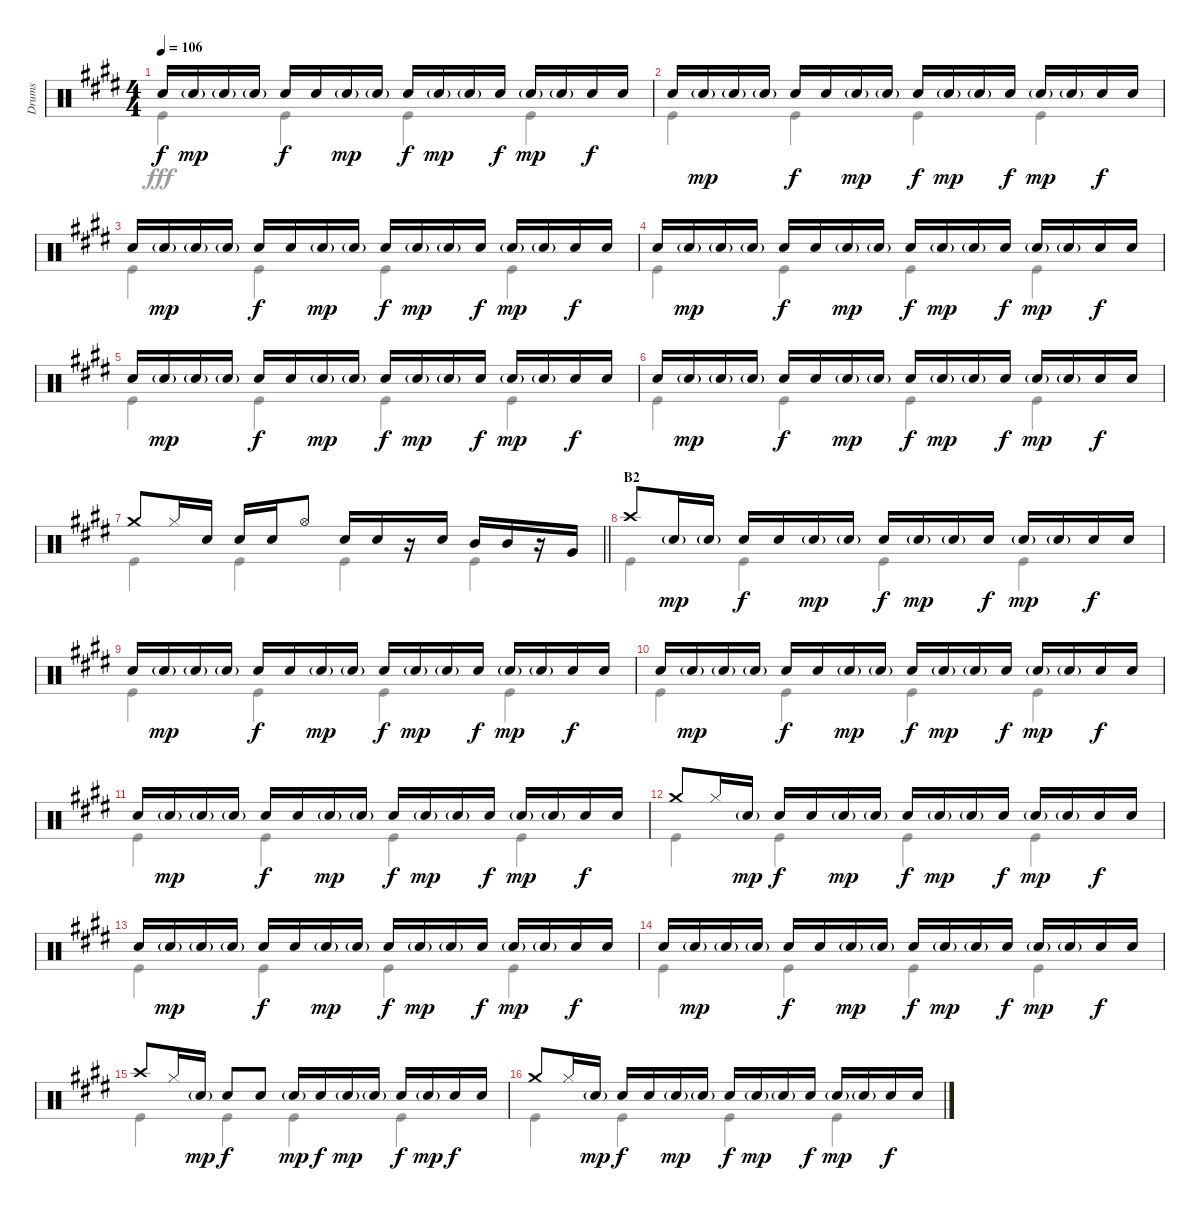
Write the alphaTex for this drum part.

\track ("Drums" "Drums") {instrument percussion}
\staff {score}
\articulation defaults
\voice
\ts (4 4)
\tempo 106
\clef neutral
\ks e "Snare (hit) 2".16{dy f} "Snare (hit) 2"{g}.16{dy mp} "Snare (hit) 2"{g}.16 "Snare (hit) 2"{g}.16 "Snare (hit) 2".16{dy f} "Snare (hit) 2".16 "Snare (hit) 2"{g}.16{dy mp} "Snare (hit) 2"{g}.16 "Snare (hit) 2".16{dy f} "Snare (hit) 2"{g}.16{dy mp} "Snare (hit) 2"{g}.16 "Snare (hit) 2".16{dy f} "Snare (hit) 2"{g}.16{dy mp} "Snare (hit) 2"{g}.16 "Snare (hit) 2".16{dy f} "Snare (hit) 2".16
|
"Snare (hit) 2".16 "Snare (hit) 2"{g}.16{dy mp} "Snare (hit) 2"{g}.16 "Snare (hit) 2"{g}.16 "Snare (hit) 2".16{dy f} "Snare (hit) 2".16 "Snare (hit) 2"{g}.16{dy mp} "Snare (hit) 2"{g}.16 "Snare (hit) 2".16{dy f} "Snare (hit) 2"{g}.16{dy mp} "Snare (hit) 2"{g}.16 "Snare (hit) 2".16{dy f} "Snare (hit) 2"{g}.16{dy mp} "Snare (hit) 2"{g}.16 "Snare (hit) 2".16{dy f} "Snare (hit) 2".16 |
"Snare (hit) 2".16 "Snare (hit) 2"{g}.16{dy mp} "Snare (hit) 2"{g}.16 "Snare (hit) 2"{g}.16 "Snare (hit) 2".16{dy f} "Snare (hit) 2".16 "Snare (hit) 2"{g}.16{dy mp} "Snare (hit) 2"{g}.16 "Snare (hit) 2".16{dy f} "Snare (hit) 2"{g}.16{dy mp} "Snare (hit) 2"{g}.16 "Snare (hit) 2".16{dy f} "Snare (hit) 2"{g}.16{dy mp} "Snare (hit) 2"{g}.16 "Snare (hit) 2".16{dy f} "Snare (hit) 2".16 |
"Snare (hit) 2".16 "Snare (hit) 2"{g}.16{dy mp} "Snare (hit) 2"{g}.16 "Snare (hit) 2"{g}.16 "Snare (hit) 2".16{dy f} "Snare (hit) 2".16 "Snare (hit) 2"{g}.16{dy mp} "Snare (hit) 2"{g}.16 "Snare (hit) 2".16{dy f} "Snare (hit) 2"{g}.16{dy mp} "Snare (hit) 2"{g}.16 "Snare (hit) 2".16{dy f} "Snare (hit) 2"{g}.16{dy mp} "Snare (hit) 2"{g}.16 "Snare (hit) 2".16{dy f} "Snare (hit) 2".16 |
"Snare (hit) 2".16 "Snare (hit) 2"{g}.16{dy mp} "Snare (hit) 2"{g}.16 "Snare (hit) 2"{g}.16 "Snare (hit) 2".16{dy f} "Snare (hit) 2".16 "Snare (hit) 2"{g}.16{dy mp} "Snare (hit) 2"{g}.16 "Snare (hit) 2".16{dy f} "Snare (hit) 2"{g}.16{dy mp} "Snare (hit) 2"{g}.16 "Snare (hit) 2".16{dy f} "Snare (hit) 2"{g}.16{dy mp} "Snare (hit) 2"{g}.16 "Snare (hit) 2".16{dy f} "Snare (hit) 2".16 |
"Snare (hit) 2".16 "Snare (hit) 2"{g}.16{dy mp} "Snare (hit) 2"{g}.16 "Snare (hit) 2"{g}.16 "Snare (hit) 2".16{dy f} "Snare (hit) 2".16 "Snare (hit) 2"{g}.16{dy mp} "Snare (hit) 2"{g}.16 "Snare (hit) 2".16{dy f} "Snare (hit) 2"{g}.16{dy mp} "Snare (hit) 2"{g}.16 "Snare (hit) 2".16{dy f} "Snare (hit) 2"{g}.16{dy mp} "Snare (hit) 2"{g}.16 "Snare (hit) 2".16{dy f} "Snare (hit) 2".16 |
\barLineRight lightlight "Crash medium (hit)".8 "Hi-Hat (closed)".16 "Snare (hit) 2".16 "Snare (hit) 2".16 "Snare (hit) 2".16 "Hi-Hat (open)".8 "Snare (hit) 2".16 "Snare (hit) 2".16
r.16 "Snare (hit) 2".16 "Mid Tom (hit)".16 "Mid Tom (hit)".16 r.16 "Very Low Tom (hit)".16 |
\section ("" "B2")
"Crash high (hit)".8 "Snare (hit) 2"{g}.16{dy mp} "Snare (hit) 2"{g}.16 "Snare (hit) 2".16{dy f} "Snare (hit) 2".16 "Snare (hit) 2"{g}.16{dy mp} "Snare (hit) 2"{g}.16 "Snare (hit) 2".16{dy f} "Snare (hit) 2"{g}.16{dy mp} "Snare (hit) 2"{g}.16 "Snare (hit) 2".16{dy f} "Snare (hit) 2"{g}.16{dy mp} "Snare (hit) 2"{g}.16 "Snare (hit) 2".16{dy f} "Snare (hit) 2".16 |
"Snare (hit) 2".16 "Snare (hit) 2"{g}.16{dy mp} "Snare (hit) 2"{g}.16 "Snare (hit) 2"{g}.16 "Snare (hit) 2".16{dy f} "Snare (hit) 2".16 "Snare (hit) 2"{g}.16{dy mp} "Snare (hit) 2"{g}.16 "Snare (hit) 2".16{dy f} "Snare (hit) 2"{g}.16{dy mp} "Snare (hit) 2"{g}.16 "Snare (hit) 2".16{dy f} "Snare (hit) 2"{g}.16{dy mp} "Snare (hit) 2"{g}.16 "Snare (hit) 2".16{dy f} "Snare (hit) 2".16 |
"Snare (hit) 2".16 "Snare (hit) 2"{g}.16{dy mp} "Snare (hit) 2"{g}.16 "Snare (hit) 2"{g}.16 "Snare (hit) 2".16{dy f} "Snare (hit) 2".16 "Snare (hit) 2"{g}.16{dy mp} "Snare (hit) 2"{g}.16 "Snare (hit) 2".16{dy f} "Snare (hit) 2"{g}.16{dy mp} "Snare (hit) 2"{g}.16 "Snare (hit) 2".16{dy f} "Snare (hit) 2"{g}.16{dy mp} "Snare (hit) 2"{g}.16 "Snare (hit) 2".16{dy f} "Snare (hit) 2".16 |
"Snare (hit) 2".16 "Snare (hit) 2"{g}.16{dy mp} "Snare (hit) 2"{g}.16 "Snare (hit) 2"{g}.16 "Snare (hit) 2".16{dy f} "Snare (hit) 2".16 "Snare (hit) 2"{g}.16{dy mp} "Snare (hit) 2"{g}.16 "Snare (hit) 2".16{dy f} "Snare (hit) 2"{g}.16{dy mp} "Snare (hit) 2"{g}.16 "Snare (hit) 2".16{dy f} "Snare (hit) 2"{g}.16{dy mp} "Snare (hit) 2"{g}.16 "Snare (hit) 2".16{dy f} "Snare (hit) 2".16 |
"Crash medium (hit)".8 "Hi-Hat (closed)".16 "Snare (hit) 2"{g}.16{dy mp} "Snare (hit) 2".16{dy f} "Snare (hit) 2".16 "Snare (hit) 2"{g}.16{dy mp} "Snare (hit) 2"{g}.16 "Snare (hit) 2".16{dy f} "Snare (hit) 2"{g}.16{dy mp} "Snare (hit) 2"{g}.16 "Snare (hit) 2".16{dy f} "Snare (hit) 2"{g}.16{dy mp} "Snare (hit) 2"{g}.16 "Snare (hit) 2".16{dy f} "Snare (hit) 2".16 |
"Snare (hit) 2".16 "Snare (hit) 2"{g}.16{dy mp} "Snare (hit) 2"{g}.16 "Snare (hit) 2"{g}.16 "Snare (hit) 2".16{dy f} "Snare (hit) 2".16 "Snare (hit) 2"{g}.16{dy mp} "Snare (hit) 2"{g}.16 "Snare (hit) 2".16{dy f} "Snare (hit) 2"{g}.16{dy mp} "Snare (hit) 2"{g}.16 "Snare (hit) 2".16{dy f} "Snare (hit) 2"{g}.16{dy mp} "Snare (hit) 2"{g}.16 "Snare (hit) 2".16{dy f} "Snare (hit) 2".16 |
"Snare (hit) 2".16 "Snare (hit) 2"{g}.16{dy mp} "Snare (hit) 2"{g}.16 "Snare (hit) 2"{g}.16 "Snare (hit) 2".16{dy f} "Snare (hit) 2".16 "Snare (hit) 2"{g}.16{dy mp} "Snare (hit) 2"{g}.16 "Snare (hit) 2".16{dy f} "Snare (hit) 2"{g}.16{dy mp} "Snare (hit) 2"{g}.16 "Snare (hit) 2".16{dy f} "Snare (hit) 2"{g}.16{dy mp} "Snare (hit) 2"{g}.16 "Snare (hit) 2".16{dy f} "Snare (hit) 2".16 |
"Crash high (hit)".8 "Hi-Hat (closed)".16 "Snare (hit) 2"{g}.16{dy mp} "Snare (hit) 2".8{dy f} "Snare (hit) 2".8 "Snare (hit) 2"{g}.16{dy mp} "Snare (hit) 2".16{dy f} "Snare (hit) 2"{g}.16{dy mp} "Snare (hit) 2"{g}.16 "Snare (hit) 2".16{dy f} "Snare (hit) 2"{g}.16{dy mp} "Snare (hit) 2".16{dy f} "Snare (hit) 2".16 |
"Crash medium (hit)".8 "Hi-Hat (closed)".16 "Snare (hit) 2"{g}.16{dy mp} "Snare (hit) 2".16{dy f} "Snare (hit) 2".16 "Snare (hit) 2"{g}.16{dy mp} "Snare (hit) 2"{g}.16 "Snare (hit) 2".16{dy f} "Snare (hit) 2"{g}.16{dy mp} "Snare (hit) 2"{g}.16 "Snare (hit) 2".16{dy f} "Snare (hit) 2"{g}.16{dy mp} "Snare (hit) 2"{g}.16 "Snare (hit) 2".16{dy f} "Snare (hit) 2".16
\voice
\clef neutral
\ottava regular
\simile none
\ks e "Kick (hit)".4{dy fff} "Kick (hit)".4 "Kick (hit)".4 "Kick (hit)".4
|
"Kick (hit)".4 "Kick (hit)".4 "Kick (hit)".4 "Kick (hit)".4 |
"Kick (hit)".4 "Kick (hit)".4 "Kick (hit)".4 "Kick (hit)".4 |
"Kick (hit)".4 "Kick (hit)".4 "Kick (hit)".4 "Kick (hit)".4 |
"Kick (hit)".4 "Kick (hit)".4 "Kick (hit)".4 "Kick (hit)".4 |
"Kick (hit)".4 "Kick (hit)".4 "Kick (hit)".4 "Kick (hit)".4 |
\barLineRight lightlight "Kick (hit)".4 "Kick (hit)".4 "Kick (hit)".4 "Kick (hit)".4
|
"Kick (hit)".4 "Kick (hit)".4 "Kick (hit)".4 "Kick (hit)".4 |
"Kick (hit)".4 "Kick (hit)".4 "Kick (hit)".4 "Kick (hit)".4 |
"Kick (hit)".4 "Kick (hit)".4 "Kick (hit)".4 "Kick (hit)".4 |
"Kick (hit)".4 "Kick (hit)".4 "Kick (hit)".4 "Kick (hit)".4 |
"Kick (hit)".4 "Kick (hit)".4 "Kick (hit)".4 "Kick (hit)".4 |
"Kick (hit)".4 "Kick (hit)".4 "Kick (hit)".4 "Kick (hit)".4 |
"Kick (hit)".4 "Kick (hit)".4 "Kick (hit)".4 "Kick (hit)".4 |
"Kick (hit)".4 "Kick (hit)".4 "Kick (hit)".4 "Kick (hit)".4 |
"Kick (hit)".4 "Kick (hit)".4 "Kick (hit)".4 "Kick (hit)".4
